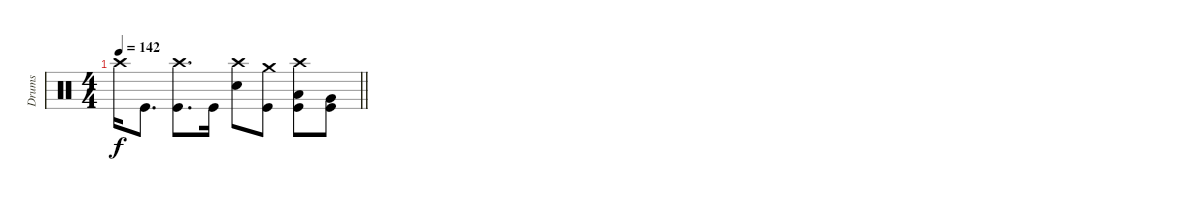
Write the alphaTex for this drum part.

\track ("Drums" "Drums") {instrument percussion}
\staff
\articulation defaults
\ts (4 4)
\tempo 142
\clef neutral
\barLineRight lightlight
\ks c "Crash high (hit)".16{dy f} "Kick (hit)".8{d}
("Crash high (hit)" "Kick (hit)").8{d} "Kick (hit)".16 ("Crash high (hit)" "Electric Snare (hit)").8 ("Crash medium (hit)" "Kick (hit)").8 ("Crash high (hit)" "Low Tom (hit)" "Kick (hit)").8 ("Very Low Tom (hit)" "Kick (hit)").8
